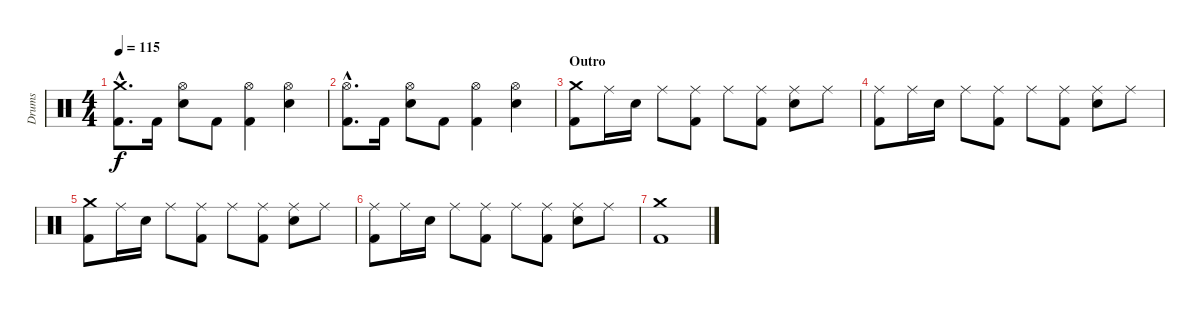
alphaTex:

\track ("Drums" "Drums") {instrument percussion}
\staff {score}
\articulation defaults
\ts (4 4)
\tempo 115
\clef neutral
\ks c
("Crash medium (hit)"{hac} "Kick (hit) 2"{hac}).8{d dy f} "Kick (hit) 2".16 ("Hi-Hat (open)" "Electric Snare (hit)").8 "Kick (hit) 2".8 ("Hi-Hat (open)" "Kick (hit) 2").4 ("Hi-Hat (open)" "Electric Snare (hit)").4 |
("Hi-Hat (open)"{hac} "Kick (hit) 2"{hac}).8{d} "Kick (hit) 2".16 ("Hi-Hat (open)" "Electric Snare (hit)").8 "Kick (hit) 2".8 ("Hi-Hat (open)" "Kick (hit) 2").4 ("Hi-Hat (open)" "Electric Snare (hit)").4 |
\section ("" "Outro")
("Crash medium (hit)" "Kick (hit) 2").8 "Ride (middle)".16 "Electric Snare (hit)".16 "Ride (middle)".8 ("Ride (middle)" "Kick (hit) 2").8 "Ride (middle)".8 ("Ride (middle)" "Kick (hit) 2").8 ("Ride (middle)" "Electric Snare (hit)").8 "Ride (middle)".8 |
("Ride (middle)" "Kick (hit) 2").8 "Ride (middle)".16 "Electric Snare (hit)".16 "Ride (middle)".8 ("Ride (middle)" "Kick (hit) 2").8 "Ride (middle)".8 ("Ride (middle)" "Kick (hit) 2").8 ("Ride (middle)" "Electric Snare (hit)").8 "Ride (middle)".8 |
("Crash medium (hit)" "Kick (hit) 2").8 "Ride (middle)".16 "Electric Snare (hit)".16 "Ride (middle)".8 ("Ride (middle)" "Kick (hit) 2").8 "Ride (middle)".8 ("Ride (middle)" "Kick (hit) 2").8 ("Ride (middle)" "Electric Snare (hit)").8 "Ride (middle)".8 |
("Ride (middle)" "Kick (hit) 2").8 "Ride (middle)".16 "Electric Snare (hit)".16 "Ride (middle)".8 ("Ride (middle)" "Kick (hit) 2").8 "Ride (middle)".8 ("Ride (middle)" "Kick (hit) 2").8 ("Ride (middle)" "Electric Snare (hit)").8 "Ride (middle)".8 |
("Crash medium (hit)" "Kick (hit) 2").1
